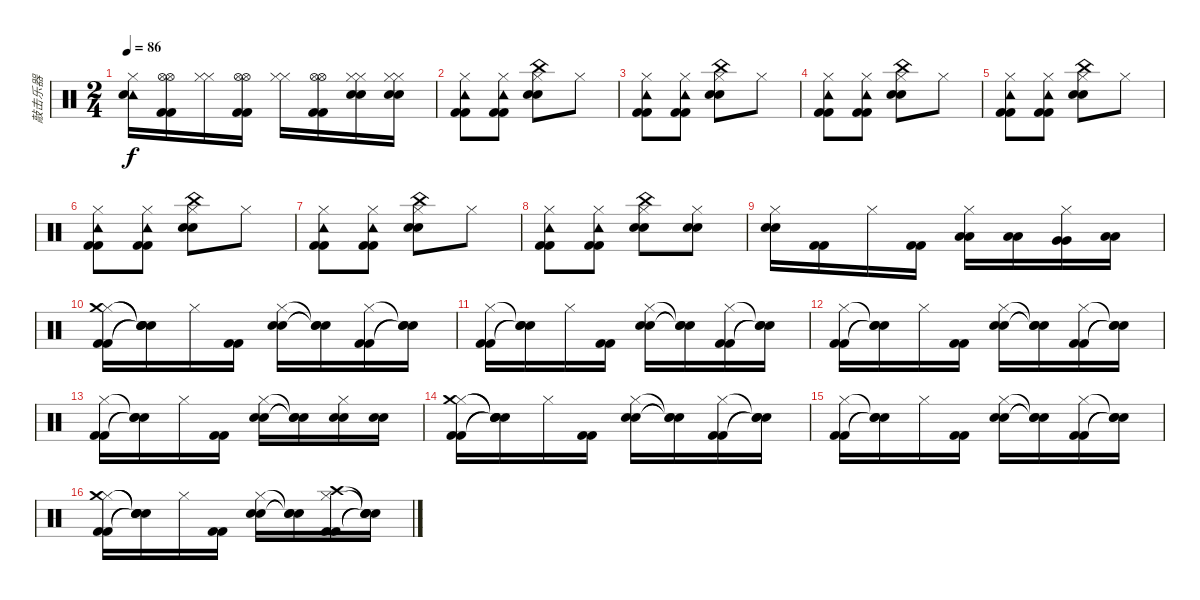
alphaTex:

\track ("敲击乐器" "敲击乐器") {instrument percussion}
\staff {score}
\articulation defaults
\ts (2 4)
\tempo 86
\clef neutral
\ks c
("Hi-Hat (closed)" "Tambourine (hit)" "Snare (hit) 2").16{dy f} ("Hi-Hat (open)" "Hi-Hat (open)" "Kick (hit) 2" "Kick (hit) 2").16 ("Hi-Hat (closed)" "Hi-Hat (closed)").16 ("Hi-Hat (open)" "Hi-Hat (open)" "Kick (hit) 2" "Kick (hit) 2").16 ("Hi-Hat (closed)" "Hi-Hat (closed)").16 ("Hi-Hat (open)" "Hi-Hat (open)" "Kick (hit) 2" "Kick (hit) 2").16 ("Hi-Hat (closed)" "Hi-Hat (closed)" "Snare (hit) 2" "Snare (hit) 2").16 ("Hi-Hat (closed)" "Hi-Hat (closed)" "Snare (hit) 2" "Snare (hit) 2").16 |
("Hi-Hat (closed)" "Tambourine (hit)" "Kick (hit) 2" "Kick (hit) 2").8 ("Hi-Hat (closed)" "Tambourine (hit)" "Kick (hit) 2" "Kick (hit) 2").8 ("Hi-Hat (closed)" "China (hit)" "Snare (hit) 2" "Snare (hit) 2").8 "Hi-Hat (closed)".8 |
("Hi-Hat (closed)" "Tambourine (hit)" "Kick (hit) 2" "Kick (hit) 2").8 ("Hi-Hat (closed)" "Tambourine (hit)" "Kick (hit) 2" "Kick (hit) 2").8 ("Hi-Hat (closed)" "China (hit)" "Snare (hit) 2" "Snare (hit) 2").8 "Hi-Hat (closed)".8 |
("Hi-Hat (closed)" "Tambourine (hit)" "Kick (hit) 2" "Kick (hit) 2").8 ("Hi-Hat (closed)" "Tambourine (hit)" "Kick (hit) 2" "Kick (hit) 2").8 ("Hi-Hat (closed)" "China (hit)" "Snare (hit) 2" "Snare (hit) 2").8 "Hi-Hat (closed)".8 |
("Hi-Hat (closed)" "Tambourine (hit)" "Kick (hit) 2" "Kick (hit) 2").8 ("Hi-Hat (closed)" "Tambourine (hit)" "Kick (hit) 2" "Kick (hit) 2").8 ("Hi-Hat (closed)" "China (hit)" "Snare (hit) 2" "Snare (hit) 2").8 "Hi-Hat (closed)".8 |
("Hi-Hat (closed)" "Tambourine (hit)" "Kick (hit) 2" "Kick (hit) 2").8 ("Hi-Hat (closed)" "Tambourine (hit)" "Kick (hit) 2" "Kick (hit) 2").8 ("Hi-Hat (closed)" "China (hit)" "Snare (hit) 2" "Snare (hit) 2").8 "Hi-Hat (closed)".8 |
("Hi-Hat (closed)" "Tambourine (hit)" "Kick (hit) 2" "Kick (hit) 2").8 ("Hi-Hat (closed)" "Tambourine (hit)" "Kick (hit) 2" "Kick (hit) 2").8 ("Hi-Hat (closed)" "China (hit)" "Snare (hit) 2" "Snare (hit) 2").8 "Hi-Hat (closed)".8 |
("Hi-Hat (closed)" "Tambourine (hit)" "Kick (hit) 2" "Kick (hit) 2").8 ("Hi-Hat (closed)" "Tambourine (hit)" "Kick (hit) 2" "Kick (hit) 2").8 ("Hi-Hat (closed)" "China (hit)" "Snare (hit) 2" "Snare (hit) 2").8 ("Hi-Hat (closed)" "Snare (hit) 2" "Snare (hit) 2").8 |
("Hi-Hat (closed)" "Snare (hit) 2" "Snare (hit) 2").16 ("Kick (hit) 2" "Kick (hit) 2").16 "Hi-Hat (closed)".16 ("Kick (hit) 2" "Kick (hit) 2").16 ("Hi-Hat (closed)" "Low Tom (hit)" "Low Tom (hit)").16 ("Low Tom (hit)" "Low Tom (hit)").16 ("Hi-Hat (closed)" "Very Low Tom (hit)" "Very Low Tom (hit)").16 ("Low Floor Tom (hit)" "Low Floor Tom (hit)").16 |
("Hi-Hat (closed)" "Crash medium (hit)" "Kick (hit) 2" "Kick (hit) 2").16 ("Snare (hit)"{t} "Snare (hit)"{t} "Snare (hit)"{t} "Snare (hit)"{t}).16 "Hi-Hat (closed)".16 ("Kick (hit) 2" "Kick (hit) 2").16 ("Hi-Hat (closed)" "Electric Snare (hit)" "Electric Snare (hit)").16 ("Snare (hit)"{t} "Snare (hit)"{t} "Snare (hit)"{t}).16 ("Hi-Hat (closed)" "Kick (hit) 2" "Kick (hit) 2").16 ("Snare (hit)"{t} "Snare (hit)"{t} "Snare (hit)"{t}).16 |
("Hi-Hat (closed)" "Kick (hit) 2" "Kick (hit) 2").16 ("Snare (hit)"{t} "Snare (hit)"{t} "Snare (hit)"{t}).16 "Hi-Hat (closed)".16 ("Kick (hit) 2" "Kick (hit) 2").16 ("Hi-Hat (closed)" "Electric Snare (hit)" "Electric Snare (hit)").16 ("Snare (hit)"{t} "Snare (hit)"{t} "Snare (hit)"{t}).16 ("Hi-Hat (closed)" "Kick (hit) 2" "Kick (hit) 2").16 ("Snare (hit)"{t} "Snare (hit)"{t} "Snare (hit)"{t}).16 |
("Hi-Hat (closed)" "Kick (hit) 2" "Kick (hit) 2").16 ("Snare (hit)"{t} "Snare (hit)"{t} "Snare (hit)"{t}).16 "Hi-Hat (closed)".16 ("Kick (hit) 2" "Kick (hit) 2").16 ("Hi-Hat (closed)" "Electric Snare (hit)" "Electric Snare (hit)").16 ("Snare (hit)"{t} "Snare (hit)"{t} "Snare (hit)"{t}).16 ("Hi-Hat (closed)" "Kick (hit) 2" "Kick (hit) 2").16 ("Snare (hit)"{t} "Snare (hit)"{t} "Snare (hit)"{t}).16 |
("Hi-Hat (closed)" "Kick (hit) 2" "Kick (hit) 2").16 ("Snare (hit)"{t} "Snare (hit)"{t} "Snare (hit)"{t}).16 "Hi-Hat (closed)".16 ("Kick (hit) 2" "Kick (hit) 2").16 ("Hi-Hat (closed)" "Electric Snare (hit)" "Electric Snare (hit)").16 ("Snare (hit)"{t} "Snare (hit)"{t} "Snare (hit)"{t}).16 ("Hi-Hat (closed)" "Snare (hit) 2" "Snare (hit) 2").16 ("Snare (hit) 2" "Snare (hit) 2").16 |
("Hi-Hat (closed)" "Crash medium (hit)" "Kick (hit) 2" "Kick (hit) 2").16 ("Snare (hit)"{t} "Snare (hit)"{t} "Snare (hit)"{t} "Snare (hit)"{t}).16 "Hi-Hat (closed)".16 ("Kick (hit) 2" "Kick (hit) 2").16 ("Hi-Hat (closed)" "Electric Snare (hit)" "Electric Snare (hit)").16 ("Snare (hit)"{t} "Snare (hit)"{t} "Snare (hit)"{t}).16 ("Hi-Hat (closed)" "Kick (hit) 2" "Kick (hit) 2").16 ("Snare (hit)"{t} "Snare (hit)"{t} "Snare (hit)"{t}).16 |
("Hi-Hat (closed)" "Kick (hit) 2" "Kick (hit) 2").16 ("Snare (hit)"{t} "Snare (hit)"{t} "Snare (hit)"{t}).16 "Hi-Hat (closed)".16 ("Kick (hit) 2" "Kick (hit) 2").16 ("Hi-Hat (closed)" "Electric Snare (hit)" "Electric Snare (hit)").16 ("Snare (hit)"{t} "Snare (hit)"{t} "Snare (hit)"{t}).16 ("Hi-Hat (closed)" "Kick (hit) 2" "Kick (hit) 2").16 ("Snare (hit)"{t} "Snare (hit)"{t} "Snare (hit)"{t}).16 |
("Hi-Hat (closed)" "Crash medium (hit)" "Kick (hit) 2" "Kick (hit) 2").16 ("Snare (hit)"{t} "Snare (hit)"{t} "Snare (hit)"{t} "Snare (hit)"{t}).16 "Hi-Hat (closed)".16 ("Kick (hit) 2" "Kick (hit) 2").16 ("Hi-Hat (closed)" "Electric Snare (hit)" "Electric Snare (hit)").16 ("Snare (hit)"{t} "Snare (hit)"{t} "Snare (hit)"{t}).16 ("Hi-Hat (closed)" "Crash high (hit)" "Kick (hit) 2" "Kick (hit) 2").16 ("Snare (hit)"{t} "Snare (hit)"{t} "Snare (hit)"{t} "Snare (hit)"{t}).16
